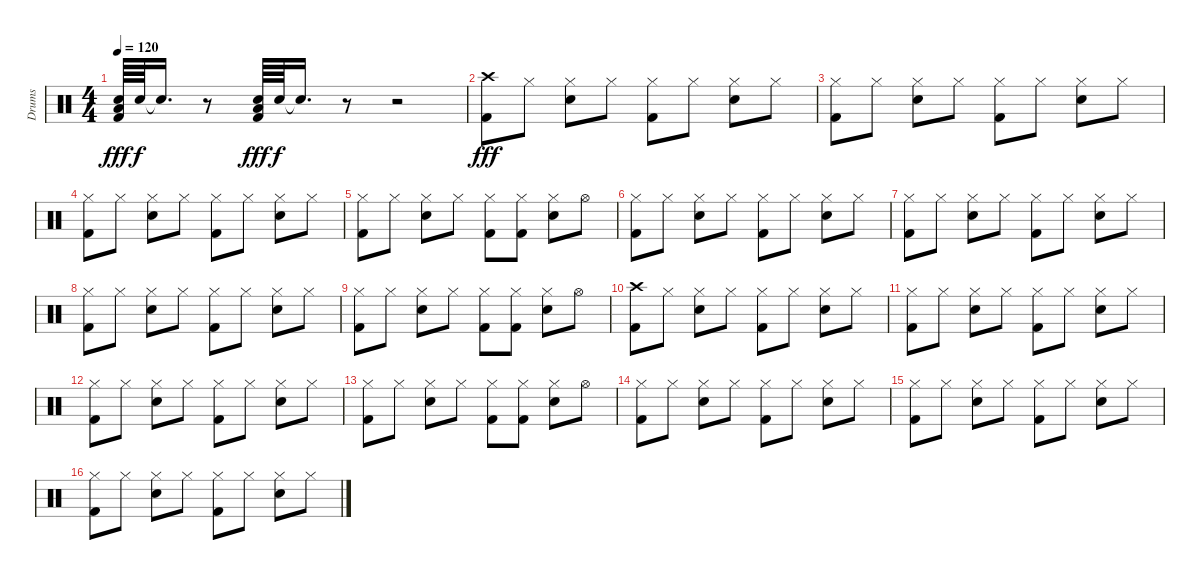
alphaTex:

\track ("Drums" "Drums") {instrument percussion}
\staff {score}
\articulation defaults
\ts (4 4)
\tempo 120
\clef neutral
\ks c
("Snare (hit) 2" "Low Floor Tom (hit)" "Kick (hit) 2").64{dy fff} "Snare (hit) 2".64{dy f} "Snare (hit)"{t}.16{d} r.8 ("Snare (hit) 2" "Low Floor Tom (hit)" "Kick (hit) 2").64{dy fff} "Snare (hit) 2".64{dy f} "Snare (hit)"{t}.16{d} r.8 r.2 |
("Crash high (hit)" "Kick (hit) 2").8{dy fff} "Hi-Hat (closed)".8 ("Hi-Hat (closed)" "Snare (hit) 2").8 "Hi-Hat (closed)".8 ("Hi-Hat (closed)" "Kick (hit) 2").8 "Hi-Hat (closed)".8 ("Hi-Hat (closed)" "Snare (hit) 2").8 "Hi-Hat (closed)".8 |
("Hi-Hat (closed)" "Kick (hit) 2").8 "Hi-Hat (closed)".8 ("Hi-Hat (closed)" "Snare (hit) 2").8 "Hi-Hat (closed)".8 ("Hi-Hat (closed)" "Kick (hit) 2").8 "Hi-Hat (closed)".8 ("Hi-Hat (closed)" "Snare (hit) 2").8 "Hi-Hat (closed)".8 |
("Hi-Hat (closed)" "Kick (hit) 2").8 "Hi-Hat (closed)".8 ("Hi-Hat (closed)" "Snare (hit) 2").8 "Hi-Hat (closed)".8 ("Hi-Hat (closed)" "Kick (hit) 2").8 "Hi-Hat (closed)".8 ("Hi-Hat (closed)" "Snare (hit) 2").8 "Hi-Hat (closed)".8 |
("Hi-Hat (closed)" "Kick (hit) 2").8 "Hi-Hat (closed)".8 ("Hi-Hat (closed)" "Snare (hit) 2").8 "Hi-Hat (closed)".8 ("Hi-Hat (closed)" "Kick (hit) 2").8 ("Hi-Hat (closed)" "Kick (hit) 2").8 ("Hi-Hat (closed)" "Snare (hit) 2").8 "Hi-Hat (open)".8 |
("Hi-Hat (closed)" "Kick (hit) 2").8 "Hi-Hat (closed)".8 ("Hi-Hat (closed)" "Snare (hit) 2").8 "Hi-Hat (closed)".8 ("Hi-Hat (closed)" "Kick (hit) 2").8 "Hi-Hat (closed)".8 ("Hi-Hat (closed)" "Snare (hit) 2").8 "Hi-Hat (closed)".8 |
("Hi-Hat (closed)" "Kick (hit) 2").8 "Hi-Hat (closed)".8 ("Hi-Hat (closed)" "Snare (hit) 2").8 "Hi-Hat (closed)".8 ("Hi-Hat (closed)" "Kick (hit) 2").8 "Hi-Hat (closed)".8 ("Hi-Hat (closed)" "Snare (hit) 2").8 "Hi-Hat (closed)".8 |
("Hi-Hat (closed)" "Kick (hit) 2").8 "Hi-Hat (closed)".8 ("Hi-Hat (closed)" "Snare (hit) 2").8 "Hi-Hat (closed)".8 ("Hi-Hat (closed)" "Kick (hit) 2").8 "Hi-Hat (closed)".8 ("Hi-Hat (closed)" "Snare (hit) 2").8 "Hi-Hat (closed)".8 |
("Hi-Hat (closed)" "Kick (hit) 2").8 "Hi-Hat (closed)".8 ("Hi-Hat (closed)" "Snare (hit) 2").8 "Hi-Hat (closed)".8 ("Hi-Hat (closed)" "Kick (hit) 2").8 ("Hi-Hat (closed)" "Kick (hit) 2").8 ("Hi-Hat (closed)" "Snare (hit) 2").8 "Hi-Hat (open)".8 |
("Crash high (hit)" "Kick (hit) 2").8 "Hi-Hat (closed)".8 ("Hi-Hat (closed)" "Snare (hit) 2").8 "Hi-Hat (closed)".8 ("Hi-Hat (closed)" "Kick (hit) 2").8 "Hi-Hat (closed)".8 ("Hi-Hat (closed)" "Snare (hit) 2").8 "Hi-Hat (closed)".8 |
("Hi-Hat (closed)" "Kick (hit) 2").8 "Hi-Hat (closed)".8 ("Hi-Hat (closed)" "Snare (hit) 2").8 "Hi-Hat (closed)".8 ("Hi-Hat (closed)" "Kick (hit) 2").8 "Hi-Hat (closed)".8 ("Hi-Hat (closed)" "Snare (hit) 2").8 "Hi-Hat (closed)".8 |
("Hi-Hat (closed)" "Kick (hit) 2").8 "Hi-Hat (closed)".8 ("Hi-Hat (closed)" "Snare (hit) 2").8 "Hi-Hat (closed)".8 ("Hi-Hat (closed)" "Kick (hit) 2").8 "Hi-Hat (closed)".8 ("Hi-Hat (closed)" "Snare (hit) 2").8 "Hi-Hat (closed)".8 |
("Hi-Hat (closed)" "Kick (hit) 2").8 "Hi-Hat (closed)".8 ("Hi-Hat (closed)" "Snare (hit) 2").8 "Hi-Hat (closed)".8 ("Hi-Hat (closed)" "Kick (hit) 2").8 ("Hi-Hat (closed)" "Kick (hit) 2").8 ("Hi-Hat (closed)" "Snare (hit) 2").8 "Hi-Hat (open)".8 |
("Hi-Hat (closed)" "Kick (hit) 2").8 "Hi-Hat (closed)".8 ("Hi-Hat (closed)" "Snare (hit) 2").8 "Hi-Hat (closed)".8 ("Hi-Hat (closed)" "Kick (hit) 2").8 "Hi-Hat (closed)".8 ("Hi-Hat (closed)" "Snare (hit) 2").8 "Hi-Hat (closed)".8 |
("Hi-Hat (closed)" "Kick (hit) 2").8 "Hi-Hat (closed)".8 ("Hi-Hat (closed)" "Snare (hit) 2").8 "Hi-Hat (closed)".8 ("Hi-Hat (closed)" "Kick (hit) 2").8 "Hi-Hat (closed)".8 ("Hi-Hat (closed)" "Snare (hit) 2").8 "Hi-Hat (closed)".8 |
("Hi-Hat (closed)" "Kick (hit) 2").8 "Hi-Hat (closed)".8 ("Hi-Hat (closed)" "Snare (hit) 2").8 "Hi-Hat (closed)".8 ("Hi-Hat (closed)" "Kick (hit) 2").8 "Hi-Hat (closed)".8 ("Hi-Hat (closed)" "Snare (hit) 2").8 "Hi-Hat (closed)".8
